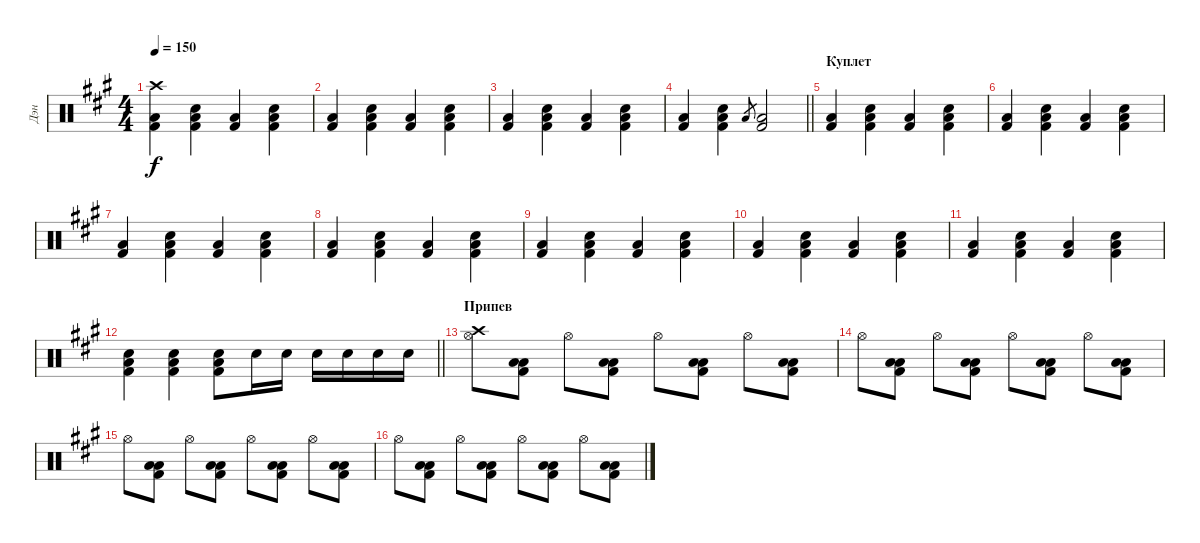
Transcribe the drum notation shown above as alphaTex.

\track ("Дэн" "Дэн") {instrument percussion}
\staff {score}
\articulation defaults
\ts (4 4)
\tempo 150
\clef neutral
\ks f#minor
("Crash high (hit)" "Low Tom (hit)" "Kick (hit) 2").4{dy f} ("Snare (hit) 2" "Low Tom (hit)" "Kick (hit) 2").4 ("Low Tom (hit)" "Kick (hit) 2").4 ("Snare (hit) 2" "Low Tom (hit)" "Kick (hit) 2").4 |
("Low Tom (hit)" "Kick (hit) 2").4 ("Snare (hit) 2" "Low Tom (hit)" "Kick (hit) 2").4 ("Low Tom (hit)" "Kick (hit) 2").4 ("Snare (hit) 2" "Low Tom (hit)" "Kick (hit) 2").4 |
("Low Tom (hit)" "Kick (hit) 2").4 ("Snare (hit) 2" "Low Tom (hit)" "Kick (hit) 2").4 ("Low Tom (hit)" "Kick (hit) 2").4 ("Snare (hit) 2" "Low Tom (hit)" "Kick (hit) 2").4 |
\barLineRight lightlight
("Low Tom (hit)" "Kick (hit) 2").4 ("Snare (hit) 2" "Low Tom (hit)" "Kick (hit) 2").4 "Low Tom (hit)".8{gr} ("Low Tom (hit)" "Kick (hit) 2").2 |
\section ("" "Куплет")
("Low Tom (hit)" "Kick (hit) 2").4 ("Electric Snare (hit)" "Low Tom (hit)" "Kick (hit) 2").4 ("Low Tom (hit)" "Kick (hit) 2").4 ("Electric Snare (hit)" "Low Tom (hit)" "Kick (hit) 2").4 |
("Low Tom (hit)" "Kick (hit) 2").4 ("Electric Snare (hit)" "Low Tom (hit)" "Kick (hit) 2").4 ("Low Tom (hit)" "Kick (hit) 2").4 ("Electric Snare (hit)" "Low Tom (hit)" "Kick (hit) 2").4 |
("Low Tom (hit)" "Kick (hit) 2").4 ("Electric Snare (hit)" "Low Tom (hit)" "Kick (hit) 2").4 ("Low Tom (hit)" "Kick (hit) 2").4 ("Electric Snare (hit)" "Low Tom (hit)" "Kick (hit) 2").4 |
("Low Tom (hit)" "Kick (hit) 2").4 ("Electric Snare (hit)" "Low Tom (hit)" "Kick (hit) 2").4 ("Low Tom (hit)" "Kick (hit) 2").4 ("Electric Snare (hit)" "Low Tom (hit)" "Kick (hit) 2").4 |
("Low Tom (hit)" "Kick (hit) 2").4 ("Electric Snare (hit)" "Low Tom (hit)" "Kick (hit) 2").4 ("Low Tom (hit)" "Kick (hit) 2").4 ("Electric Snare (hit)" "Low Tom (hit)" "Kick (hit) 2").4 |
("Low Tom (hit)" "Kick (hit) 2").4 ("Electric Snare (hit)" "Low Tom (hit)" "Kick (hit) 2").4 ("Low Tom (hit)" "Kick (hit) 2").4 ("Electric Snare (hit)" "Low Tom (hit)" "Kick (hit) 2").4 |
("Low Tom (hit)" "Kick (hit) 2").4 ("Electric Snare (hit)" "Low Tom (hit)" "Kick (hit) 2").4 ("Low Tom (hit)" "Kick (hit) 2").4 ("Electric Snare (hit)" "Low Tom (hit)" "Kick (hit) 2").4 |
\barLineRight lightlight
("Electric Snare (hit)" "Low Tom (hit)" "Kick (hit) 2").4 ("Electric Snare (hit)" "Low Tom (hit)" "Kick (hit) 2").4 ("Electric Snare (hit)" "Low Tom (hit)" "Kick (hit) 2").8 "Electric Snare (hit)".16 "Electric Snare (hit)".16 "Electric Snare (hit)".16 "Electric Snare (hit)".16 "Electric Snare (hit)".16 "Electric Snare (hit)".16 |
\section ("" "Припев")
("Crash high (hit)" "Hi-Hat (open)").8 ("Low Tom (hit)" "Low Tom (hit)" "Kick (hit) 2").8 "Hi-Hat (open)".8 ("Low Tom (hit)" "Low Tom (hit)" "Kick (hit) 2").8 "Hi-Hat (open)".8 ("Low Tom (hit)" "Low Tom (hit)" "Kick (hit) 2").8 "Hi-Hat (open)".8 ("Low Tom (hit)" "Low Tom (hit)" "Kick (hit) 2").8 |
"Hi-Hat (open)".8 ("Low Tom (hit)" "Low Tom (hit)" "Kick (hit) 2").8 "Hi-Hat (open)".8 ("Low Tom (hit)" "Low Tom (hit)" "Kick (hit) 2").8 "Hi-Hat (open)".8 ("Low Tom (hit)" "Low Tom (hit)" "Kick (hit) 2").8 "Hi-Hat (open)".8 ("Low Tom (hit)" "Low Tom (hit)" "Kick (hit) 2").8 |
"Hi-Hat (open)".8 ("Low Tom (hit)" "Low Tom (hit)" "Kick (hit) 2").8 "Hi-Hat (open)".8 ("Low Tom (hit)" "Low Tom (hit)" "Kick (hit) 2").8 "Hi-Hat (open)".8 ("Low Tom (hit)" "Low Tom (hit)" "Kick (hit) 2").8 "Hi-Hat (open)".8 ("Low Tom (hit)" "Low Tom (hit)" "Kick (hit) 2").8 |
"Hi-Hat (open)".8 ("Low Tom (hit)" "Low Tom (hit)" "Kick (hit) 2").8 "Hi-Hat (open)".8 ("Low Tom (hit)" "Low Tom (hit)" "Kick (hit) 2").8 "Hi-Hat (open)".8 ("Low Tom (hit)" "Low Tom (hit)" "Kick (hit) 2").8 "Hi-Hat (open)".8 ("Low Tom (hit)" "Low Tom (hit)" "Kick (hit) 2").8
